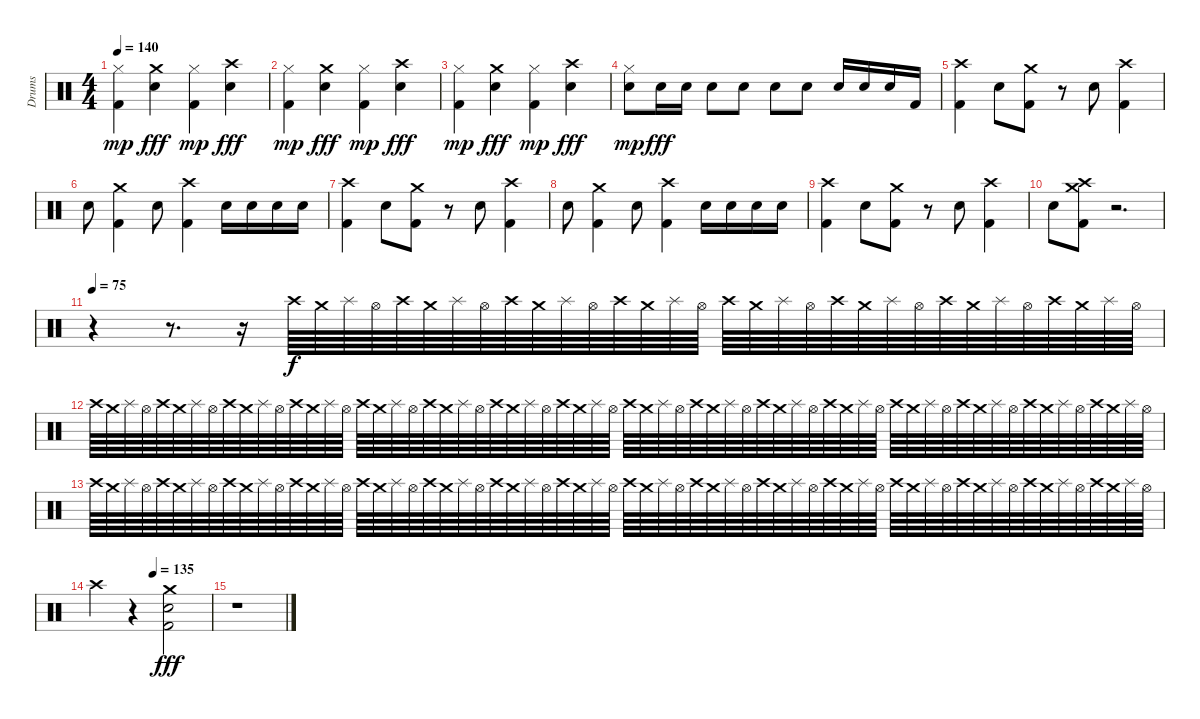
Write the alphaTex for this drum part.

\track ("Drums" "Drums") {instrument percussion}
\staff {score}
\articulation defaults
\ts (4 4)
\tempo 140
\clef neutral
\ks c
("Kick (hit) 2" "Hi-Hat (closed)").4{dy mp} ("Electric Snare (hit)" "Crash medium (hit)").4{dy fff} ("Kick (hit) 2" "Hi-Hat (closed)").4{dy mp} ("Electric Snare (hit)" "Crash high (hit)").4{dy fff} |
("Kick (hit) 2" "Hi-Hat (closed)").4{dy mp} ("Electric Snare (hit)" "Crash medium (hit)").4{dy fff} ("Kick (hit) 2" "Hi-Hat (closed)").4{dy mp} ("Electric Snare (hit)" "Crash high (hit)").4{dy fff} |
("Kick (hit) 2" "Hi-Hat (closed)").4{dy mp} ("Electric Snare (hit)" "Crash medium (hit)").4{dy fff} ("Kick (hit) 2" "Hi-Hat (closed)").4{dy mp} ("Electric Snare (hit)" "Crash high (hit)").4{dy fff} |
("Electric Snare (hit)" "Hi-Hat (closed)").8{dy mp} "Electric Snare (hit)".16{dy fff} "Electric Snare (hit)".16 "Electric Snare (hit)".8 "Electric Snare (hit)".8 "Electric Snare (hit)".8 "Electric Snare (hit)".8 "Electric Snare (hit)".16 "Electric Snare (hit)".16 "Electric Snare (hit)".16 "Kick (hit) 2".16 |
("Kick (hit) 2" "Crash high (hit)").4 "Electric Snare (hit)".8 ("Kick (hit) 2" "Crash medium (hit)").8 r.8 "Electric Snare (hit)".8 ("Kick (hit) 2" "Crash high (hit)").4 |
"Electric Snare (hit)".8 ("Kick (hit) 2" "Crash medium (hit)").4 "Electric Snare (hit)".8 ("Kick (hit) 2" "Crash high (hit)").4 "Electric Snare (hit)".16 "Electric Snare (hit)".16 "Electric Snare (hit)".16 "Electric Snare (hit)".16 |
("Kick (hit) 2" "Crash high (hit)").4 "Electric Snare (hit)".8 ("Kick (hit) 2" "Crash medium (hit)").8 r.8 "Electric Snare (hit)".8 ("Kick (hit) 2" "Crash high (hit)").4 |
"Electric Snare (hit)".8 ("Kick (hit) 2" "Crash medium (hit)").4 "Electric Snare (hit)".8 ("Kick (hit) 2" "Crash high (hit)").4 "Electric Snare (hit)".16 "Electric Snare (hit)".16 "Electric Snare (hit)".16 "Electric Snare (hit)".16 |
("Kick (hit) 2" "Crash high (hit)").4 "Electric Snare (hit)".8 ("Kick (hit) 2" "Crash medium (hit)").8 r.8 "Electric Snare (hit)".8 ("Kick (hit) 2" "Crash high (hit)").4 |
"Electric Snare (hit)".8 ("Kick (hit) 2" "Crash high (hit)" "Crash medium (hit)").8 r.2{d} |
\tempo 75
r.4 r.8{d} r.16{volume 0} "Crash high (hit)".64{dy f volume 16} "Crash medium (hit)".64 "Splash (hit)".64 "Hi-Hat (open)".64 "Crash high (hit)".64 "Crash medium (hit)".64 "Splash (hit)".64 "Hi-Hat (open)".64 "Crash high (hit)".64 "Crash medium (hit)".64 "Splash (hit)".64 "Hi-Hat (open)".64 "Crash high (hit)".64 "Crash medium (hit)".64 "Splash (hit)".64 "Hi-Hat (open)".64 "Crash high (hit)".64 "Crash medium (hit)".64 "Splash (hit)".64 "Hi-Hat (open)".64 "Crash high (hit)".64 "Crash medium (hit)".64 "Splash (hit)".64 "Hi-Hat (open)".64 "Crash high (hit)".64 "Crash medium (hit)".64 "Splash (hit)".64 "Hi-Hat (open)".64 "Crash high (hit)".64 "Crash medium (hit)".64 "Splash (hit)".64 "Hi-Hat (open)".64 |
"Crash high (hit)".64 "Crash medium (hit)".64 "Splash (hit)".64 "Hi-Hat (open)".64 "Crash high (hit)".64 "Crash medium (hit)".64 "Splash (hit)".64 "Hi-Hat (open)".64 "Crash high (hit)".64 "Crash medium (hit)".64 "Splash (hit)".64 "Hi-Hat (open)".64 "Crash high (hit)".64 "Crash medium (hit)".64 "Splash (hit)".64 "Hi-Hat (open)".64 "Crash high (hit)".64 "Crash medium (hit)".64 "Splash (hit)".64 "Hi-Hat (open)".64 "Crash high (hit)".64 "Crash medium (hit)".64 "Splash (hit)".64 "Hi-Hat (open)".64 "Crash high (hit)".64 "Crash medium (hit)".64 "Splash (hit)".64 "Hi-Hat (open)".64 "Crash high (hit)".64 "Crash medium (hit)".64 "Splash (hit)".64 "Hi-Hat (open)".64 "Crash high (hit)".64 "Crash medium (hit)".64 "Splash (hit)".64 "Hi-Hat (open)".64 "Crash high (hit)".64 "Crash medium (hit)".64 "Splash (hit)".64 "Hi-Hat (open)".64 "Crash high (hit)".64 "Crash medium (hit)".64 "Splash (hit)".64 "Hi-Hat (open)".64 "Crash high (hit)".64 "Crash medium (hit)".64 "Splash (hit)".64 "Hi-Hat (open)".64 "Crash high (hit)".64 "Crash medium (hit)".64 "Splash (hit)".64 "Hi-Hat (open)".64 "Crash high (hit)".64 "Crash medium (hit)".64 "Splash (hit)".64 "Hi-Hat (open)".64 "Crash high (hit)".64 "Crash medium (hit)".64 "Splash (hit)".64 "Hi-Hat (open)".64 "Crash high (hit)".64 "Crash medium (hit)".64 "Splash (hit)".64 "Hi-Hat (open)".64 |
"Crash high (hit)".64 "Crash medium (hit)".64 "Splash (hit)".64 "Hi-Hat (open)".64 "Crash high (hit)".64 "Crash medium (hit)".64 "Splash (hit)".64 "Hi-Hat (open)".64 "Crash high (hit)".64 "Crash medium (hit)".64 "Splash (hit)".64 "Hi-Hat (open)".64 "Crash high (hit)".64 "Crash medium (hit)".64 "Splash (hit)".64 "Hi-Hat (open)".64 "Crash high (hit)".64 "Crash medium (hit)".64 "Splash (hit)".64 "Hi-Hat (open)".64 "Crash high (hit)".64 "Crash medium (hit)".64 "Splash (hit)".64 "Hi-Hat (open)".64 "Crash high (hit)".64 "Crash medium (hit)".64 "Splash (hit)".64 "Hi-Hat (open)".64 "Crash high (hit)".64 "Crash medium (hit)".64 "Splash (hit)".64 "Hi-Hat (open)".64 "Crash high (hit)".64 "Crash medium (hit)".64 "Splash (hit)".64 "Hi-Hat (open)".64 "Crash high (hit)".64 "Crash medium (hit)".64 "Splash (hit)".64 "Hi-Hat (open)".64 "Crash high (hit)".64 "Crash medium (hit)".64 "Splash (hit)".64 "Hi-Hat (open)".64 "Crash high (hit)".64 "Crash medium (hit)".64 "Splash (hit)".64 "Hi-Hat (open)".64 "Crash high (hit)".64 "Crash medium (hit)".64 "Splash (hit)".64 "Hi-Hat (open)".64 "Crash high (hit)".64 "Crash medium (hit)".64 "Splash (hit)".64 "Hi-Hat (open)".64 "Crash high (hit)".64 "Crash medium (hit)".64 "Splash (hit)".64 "Hi-Hat (open)".64 "Crash high (hit)".64 "Crash medium (hit)".64 "Splash (hit)".64 "Hi-Hat (open)".64 |
\tempo (135 0.5)
"Crash high (hit)".4 r.4 ("Kick (hit) 2" "Electric Snare (hit)" "Crash medium (hit)").2{dy fff} |
r.1
